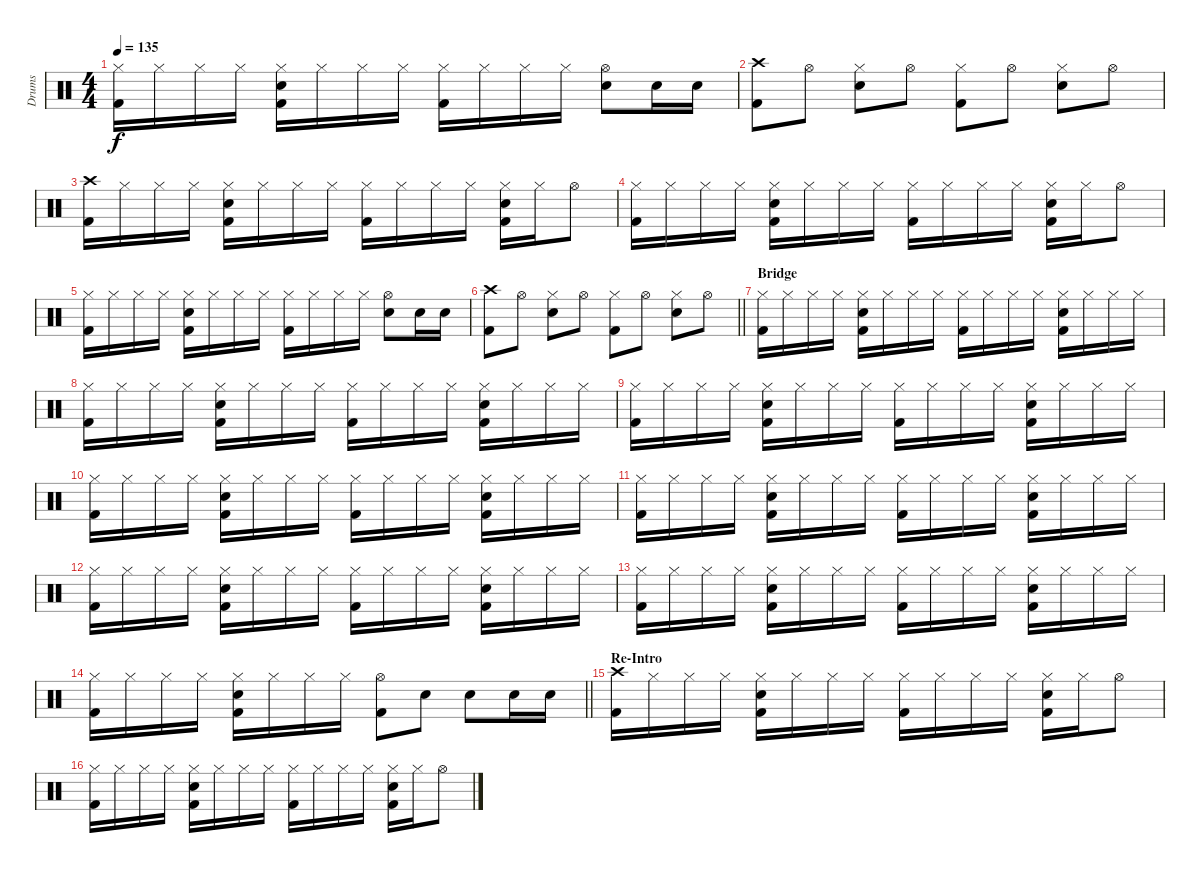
\track ("Drums" "Drums") {instrument percussion}
\staff {score}
\articulation defaults
\ts (4 4)
\tempo 135
\clef neutral
\ks c
("Hi-Hat (closed)" "Kick (hit) 2").16{dy f} "Hi-Hat (closed)".16 "Hi-Hat (closed)".16 "Hi-Hat (closed)".16 ("Hi-Hat (closed)" "Electric Snare (hit)" "Kick (hit) 2").16 "Hi-Hat (closed)".16 "Hi-Hat (closed)".16 "Hi-Hat (closed)".16 ("Hi-Hat (closed)" "Kick (hit) 2").16 "Hi-Hat (closed)".16 "Hi-Hat (closed)".16 "Hi-Hat (closed)".16 ("Hi-Hat (open)" "Electric Snare (hit)").8 "Electric Snare (hit)".16 "Electric Snare (hit)".16 |
("Crash high (hit)" "Kick (hit) 2").8 "Hi-Hat (open)".8 ("Hi-Hat (closed)" "Electric Snare (hit)").8 "Hi-Hat (open)".8 ("Hi-Hat (closed)" "Kick (hit) 2").8 "Hi-Hat (open)".8 ("Hi-Hat (closed)" "Electric Snare (hit)").8 "Hi-Hat (open)".8 |
("Crash high (hit)" "Kick (hit) 2").16 "Hi-Hat (closed)".16 "Hi-Hat (closed)".16 "Hi-Hat (closed)".16 ("Hi-Hat (closed)" "Electric Snare (hit)" "Kick (hit) 2").16 "Hi-Hat (closed)".16 "Hi-Hat (closed)".16 "Hi-Hat (closed)".16 ("Hi-Hat (closed)" "Kick (hit) 2").16 "Hi-Hat (closed)".16 "Hi-Hat (closed)".16 "Hi-Hat (closed)".16 ("Hi-Hat (closed)" "Electric Snare (hit)" "Kick (hit) 2").16 "Hi-Hat (closed)".16 "Hi-Hat (open)".8 |
("Hi-Hat (closed)" "Kick (hit) 2").16 "Hi-Hat (closed)".16 "Hi-Hat (closed)".16 "Hi-Hat (closed)".16 ("Hi-Hat (closed)" "Electric Snare (hit)" "Kick (hit) 2").16 "Hi-Hat (closed)".16 "Hi-Hat (closed)".16 "Hi-Hat (closed)".16 ("Hi-Hat (closed)" "Kick (hit) 2").16 "Hi-Hat (closed)".16 "Hi-Hat (closed)".16 "Hi-Hat (closed)".16 ("Hi-Hat (closed)" "Electric Snare (hit)" "Kick (hit) 2").16 "Hi-Hat (closed)".16 "Hi-Hat (open)".8 |
("Hi-Hat (closed)" "Kick (hit) 2").16 "Hi-Hat (closed)".16 "Hi-Hat (closed)".16 "Hi-Hat (closed)".16 ("Hi-Hat (closed)" "Electric Snare (hit)" "Kick (hit) 2").16 "Hi-Hat (closed)".16 "Hi-Hat (closed)".16 "Hi-Hat (closed)".16 ("Hi-Hat (closed)" "Kick (hit) 2").16 "Hi-Hat (closed)".16 "Hi-Hat (closed)".16 "Hi-Hat (closed)".16 ("Hi-Hat (open)" "Electric Snare (hit)").8 "Electric Snare (hit)".16 "Electric Snare (hit)".16 |
\barLineRight lightlight
("Crash high (hit)" "Kick (hit) 2").8 "Hi-Hat (open)".8 ("Hi-Hat (closed)" "Electric Snare (hit)").8 "Hi-Hat (open)".8 ("Hi-Hat (closed)" "Kick (hit) 2").8 "Hi-Hat (open)".8 ("Hi-Hat (closed)" "Electric Snare (hit)").8 "Hi-Hat (open)".8 |
\section ("" "Bridge")
("Hi-Hat (closed)" "Kick (hit) 2").16 "Hi-Hat (closed)".16 "Hi-Hat (closed)".16 "Hi-Hat (closed)".16 ("Hi-Hat (closed)" "Electric Snare (hit)" "Kick (hit) 2").16 "Hi-Hat (closed)".16 "Hi-Hat (closed)".16 "Hi-Hat (closed)".16 ("Hi-Hat (closed)" "Kick (hit) 2").16 "Hi-Hat (closed)".16 "Hi-Hat (closed)".16 "Hi-Hat (closed)".16 ("Hi-Hat (closed)" "Electric Snare (hit)" "Kick (hit) 2").16 "Hi-Hat (closed)".16 "Hi-Hat (closed)".16 "Hi-Hat (closed)".16 |
("Hi-Hat (closed)" "Kick (hit) 2").16 "Hi-Hat (closed)".16 "Hi-Hat (closed)".16 "Hi-Hat (closed)".16 ("Hi-Hat (closed)" "Electric Snare (hit)" "Kick (hit) 2").16 "Hi-Hat (closed)".16 "Hi-Hat (closed)".16 "Hi-Hat (closed)".16 ("Hi-Hat (closed)" "Kick (hit) 2").16 "Hi-Hat (closed)".16 "Hi-Hat (closed)".16 "Hi-Hat (closed)".16 ("Hi-Hat (closed)" "Electric Snare (hit)" "Kick (hit) 2").16 "Hi-Hat (closed)".16 "Hi-Hat (closed)".16 "Hi-Hat (closed)".16 |
("Hi-Hat (closed)" "Kick (hit) 2").16 "Hi-Hat (closed)".16 "Hi-Hat (closed)".16 "Hi-Hat (closed)".16 ("Hi-Hat (closed)" "Electric Snare (hit)" "Kick (hit) 2").16 "Hi-Hat (closed)".16 "Hi-Hat (closed)".16 "Hi-Hat (closed)".16 ("Hi-Hat (closed)" "Kick (hit) 2").16 "Hi-Hat (closed)".16 "Hi-Hat (closed)".16 "Hi-Hat (closed)".16 ("Hi-Hat (closed)" "Electric Snare (hit)" "Kick (hit) 2").16 "Hi-Hat (closed)".16 "Hi-Hat (closed)".16 "Hi-Hat (closed)".16 |
("Hi-Hat (closed)" "Kick (hit) 2").16 "Hi-Hat (closed)".16 "Hi-Hat (closed)".16 "Hi-Hat (closed)".16 ("Hi-Hat (closed)" "Electric Snare (hit)" "Kick (hit) 2").16 "Hi-Hat (closed)".16 "Hi-Hat (closed)".16 "Hi-Hat (closed)".16 ("Hi-Hat (closed)" "Kick (hit) 2").16 "Hi-Hat (closed)".16 "Hi-Hat (closed)".16 "Hi-Hat (closed)".16 ("Hi-Hat (closed)" "Electric Snare (hit)" "Kick (hit) 2").16 "Hi-Hat (closed)".16 "Hi-Hat (closed)".16 "Hi-Hat (closed)".16 |
("Hi-Hat (closed)" "Kick (hit) 2").16 "Hi-Hat (closed)".16 "Hi-Hat (closed)".16 "Hi-Hat (closed)".16 ("Hi-Hat (closed)" "Electric Snare (hit)" "Kick (hit) 2").16 "Hi-Hat (closed)".16 "Hi-Hat (closed)".16 "Hi-Hat (closed)".16 ("Hi-Hat (closed)" "Kick (hit) 2").16 "Hi-Hat (closed)".16 "Hi-Hat (closed)".16 "Hi-Hat (closed)".16 ("Hi-Hat (closed)" "Electric Snare (hit)" "Kick (hit) 2").16 "Hi-Hat (closed)".16 "Hi-Hat (closed)".16 "Hi-Hat (closed)".16 |
("Hi-Hat (closed)" "Kick (hit) 2").16 "Hi-Hat (closed)".16 "Hi-Hat (closed)".16 "Hi-Hat (closed)".16 ("Hi-Hat (closed)" "Electric Snare (hit)" "Kick (hit) 2").16 "Hi-Hat (closed)".16 "Hi-Hat (closed)".16 "Hi-Hat (closed)".16 ("Hi-Hat (closed)" "Kick (hit) 2").16 "Hi-Hat (closed)".16 "Hi-Hat (closed)".16 "Hi-Hat (closed)".16 ("Hi-Hat (closed)" "Electric Snare (hit)" "Kick (hit) 2").16 "Hi-Hat (closed)".16 "Hi-Hat (closed)".16 "Hi-Hat (closed)".16 |
("Hi-Hat (closed)" "Kick (hit) 2").16 "Hi-Hat (closed)".16 "Hi-Hat (closed)".16 "Hi-Hat (closed)".16 ("Hi-Hat (closed)" "Electric Snare (hit)" "Kick (hit) 2").16 "Hi-Hat (closed)".16 "Hi-Hat (closed)".16 "Hi-Hat (closed)".16 ("Hi-Hat (closed)" "Kick (hit) 2").16 "Hi-Hat (closed)".16 "Hi-Hat (closed)".16 "Hi-Hat (closed)".16 ("Hi-Hat (closed)" "Electric Snare (hit)" "Kick (hit) 2").16 "Hi-Hat (closed)".16 "Hi-Hat (closed)".16 "Hi-Hat (closed)".16 |
\barLineRight lightlight
("Hi-Hat (closed)" "Kick (hit) 2").16 "Hi-Hat (closed)".16 "Hi-Hat (closed)".16 "Hi-Hat (closed)".16 ("Hi-Hat (closed)" "Electric Snare (hit)" "Kick (hit) 2").16 "Hi-Hat (closed)".16 "Hi-Hat (closed)".16 "Hi-Hat (closed)".16 ("Hi-Hat (open)" "Kick (hit) 2").8 "Electric Snare (hit)".8 "Electric Snare (hit)".8 "Electric Snare (hit)".16 "Electric Snare (hit)".16 |
\section ("" "Re-Intro")
("Crash high (hit)" "Kick (hit) 2").16 "Hi-Hat (closed)".16 "Hi-Hat (closed)".16 "Hi-Hat (closed)".16 ("Hi-Hat (closed)" "Electric Snare (hit)" "Kick (hit) 2").16 "Hi-Hat (closed)".16 "Hi-Hat (closed)".16 "Hi-Hat (closed)".16 ("Hi-Hat (closed)" "Kick (hit) 2").16 "Hi-Hat (closed)".16 "Hi-Hat (closed)".16 "Hi-Hat (closed)".16 ("Hi-Hat (closed)" "Electric Snare (hit)" "Kick (hit) 2").16 "Hi-Hat (closed)".16 "Hi-Hat (open)".8 |
("Hi-Hat (closed)" "Kick (hit) 2").16 "Hi-Hat (closed)".16 "Hi-Hat (closed)".16 "Hi-Hat (closed)".16 ("Hi-Hat (closed)" "Electric Snare (hit)" "Kick (hit) 2").16 "Hi-Hat (closed)".16 "Hi-Hat (closed)".16 "Hi-Hat (closed)".16 ("Hi-Hat (closed)" "Kick (hit) 2").16 "Hi-Hat (closed)".16 "Hi-Hat (closed)".16 "Hi-Hat (closed)".16 ("Hi-Hat (closed)" "Electric Snare (hit)" "Kick (hit) 2").16 "Hi-Hat (closed)".16 "Hi-Hat (open)".8
